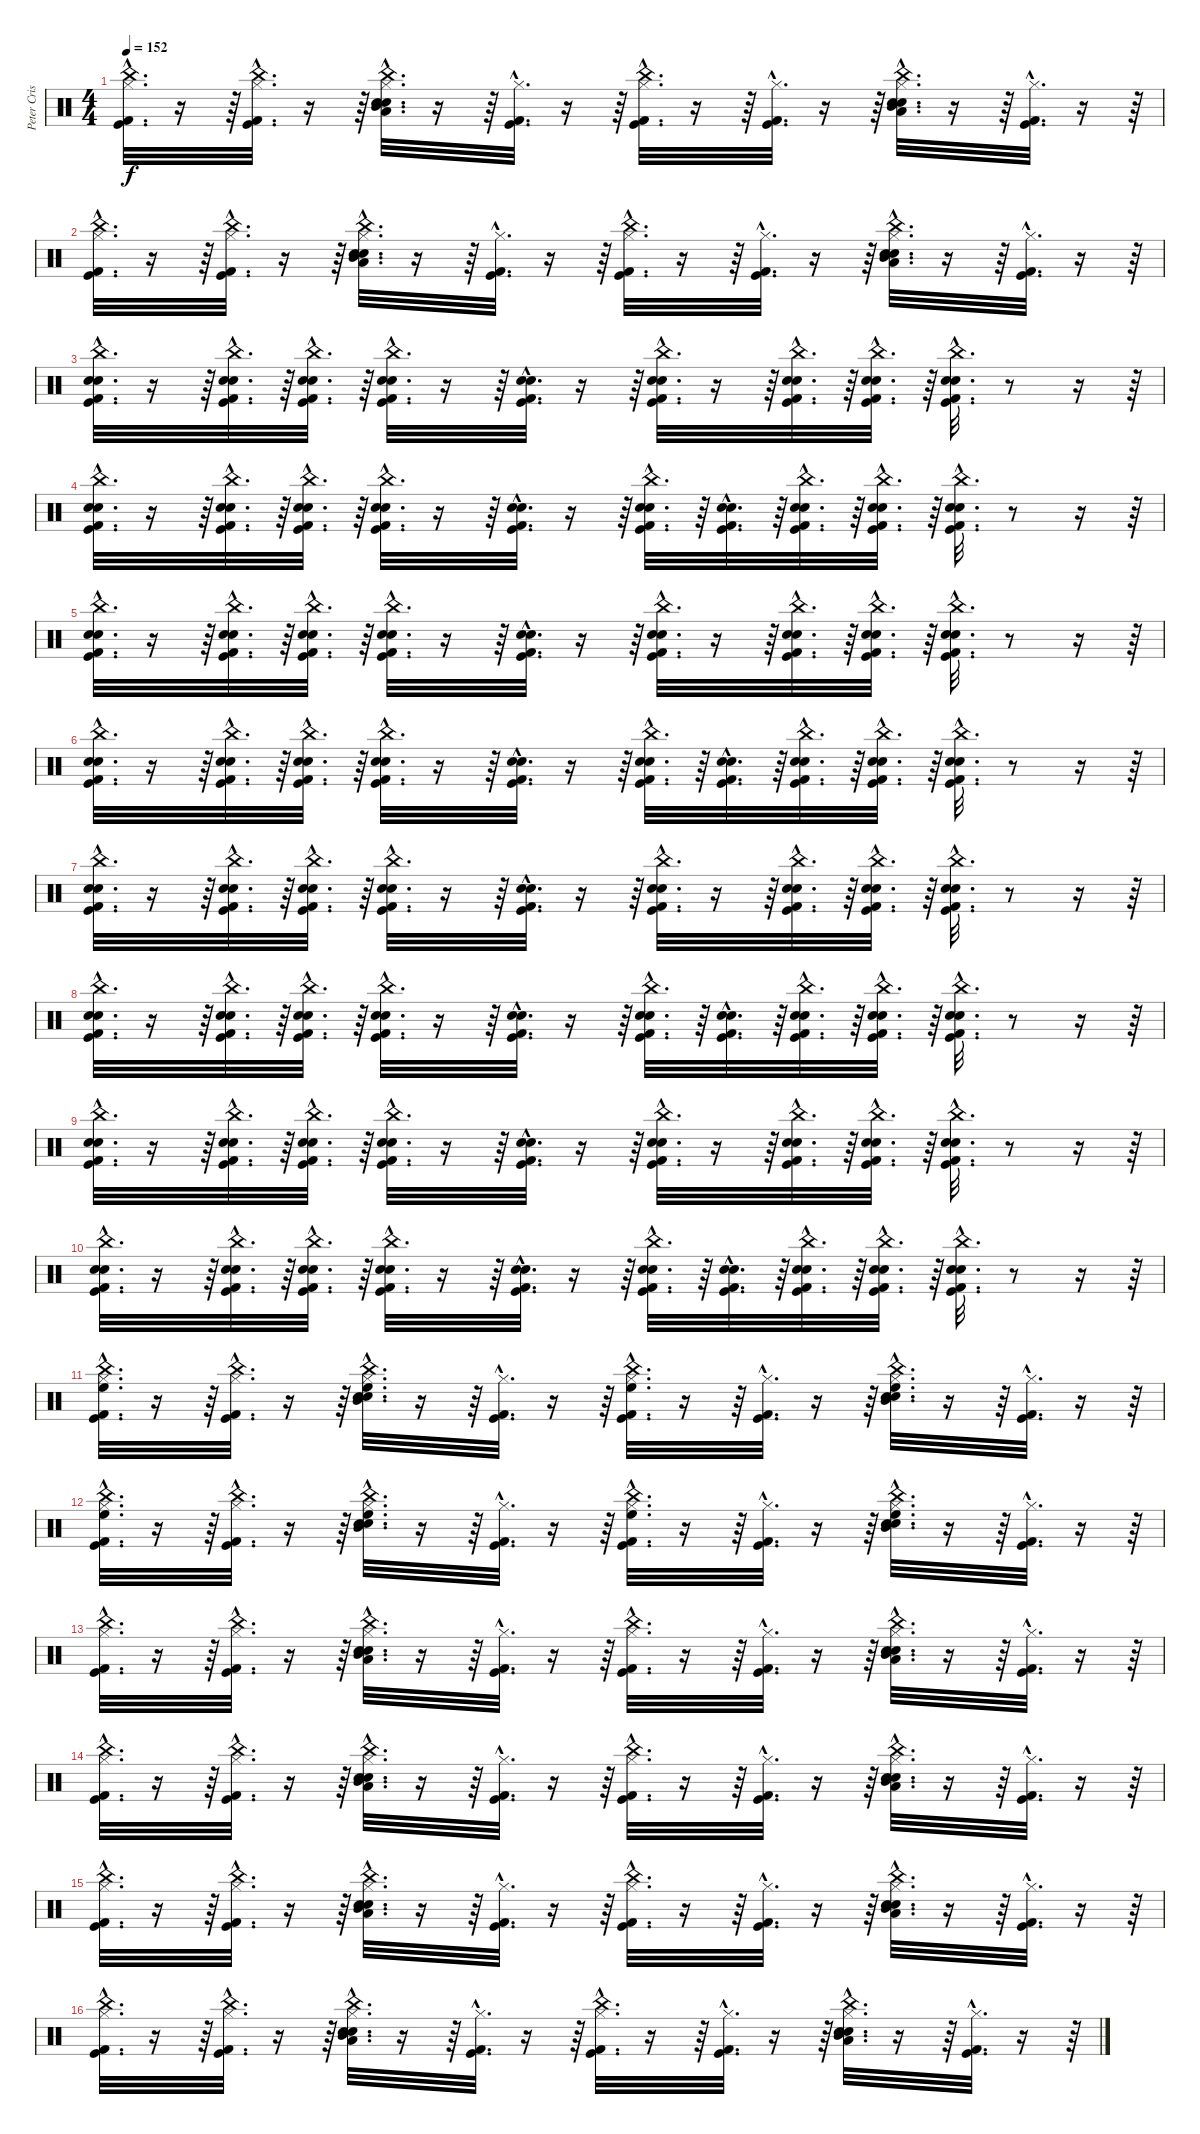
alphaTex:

\track ("Peter Criss" "Peter Cris") {instrument percussion}
\staff {score}
\articulation defaults
\ts (4 4)
\tempo 152
\clef neutral
\ks c
("China (hit)"{hac} "Kick (hit) 2"{hac} "Kick (hit)"{hac} "Hi-Hat (closed)"{hac}).32{d dy f} r.16 r.64 ("Kick (hit)"{hac} "Kick (hit) 2"{hac} "China (hit)"{hac} "Hi-Hat (closed)"{hac}).32{d} r.16 r.64 ("China (hit)"{hac} "Electric Snare (hit)"{hac} "Snare (hit) 2"{hac} "Hi-Hat (closed)"{hac} "Mid Tom (hit)"{hac} "Low Tom (hit)"{hac}).32{d} r.16 r.64 ("Kick (hit) 2"{hac} "Kick (hit)"{hac} "Hi-Hat (closed)"{hac}).32{d} r.16 r.64 ("China (hit)"{hac} "Kick (hit)"{hac} "Kick (hit) 2"{hac} "Hi-Hat (closed)"{hac}).32{d} r.16 r.64 ("Kick (hit) 2"{hac} "Kick (hit)"{hac} "Hi-Hat (closed)"{hac}).32{d} r.16 r.64 ("China (hit)"{hac} "Electric Snare (hit)"{hac} "Snare (hit) 2"{hac} "Hi-Hat (closed)"{hac} "Mid Tom (hit)"{hac} "Low Tom (hit)"{hac}).32{d} r.16 r.64 ("Kick (hit) 2"{hac} "Kick (hit)"{hac} "Hi-Hat (closed)"{hac}).32{d} r.16 r.64 |
("China (hit)"{hac} "Kick (hit) 2"{hac} "Kick (hit)"{hac} "Hi-Hat (closed)"{hac}).32{d} r.16 r.64 ("Kick (hit)"{hac} "Kick (hit) 2"{hac} "China (hit)"{hac} "Hi-Hat (closed)"{hac}).32{d} r.16 r.64 ("China (hit)"{hac} "Electric Snare (hit)"{hac} "Snare (hit) 2"{hac} "Hi-Hat (closed)"{hac} "Mid Tom (hit)"{hac} "Low Tom (hit)"{hac}).32{d} r.16 r.64 ("Kick (hit) 2"{hac} "Kick (hit)"{hac} "Hi-Hat (closed)"{hac}).32{d} r.16 r.64 ("China (hit)"{hac} "Kick (hit)"{hac} "Kick (hit) 2"{hac} "Hi-Hat (closed)"{hac}).32{d} r.16 r.64 ("Kick (hit) 2"{hac} "Kick (hit)"{hac} "Hi-Hat (closed)"{hac}).32{d} r.16 r.64 ("China (hit)"{hac} "Electric Snare (hit)"{hac} "Snare (hit) 2"{hac} "Hi-Hat (closed)"{hac} "Mid Tom (hit)"{hac} "Low Tom (hit)"{hac}).32{d} r.16 r.64 ("Kick (hit) 2"{hac} "Kick (hit)"{hac} "Hi-Hat (closed)"{hac}).32{d} r.16 r.64 |
("Electric Snare (hit)"{hac} "Snare (hit) 2"{hac} "Kick (hit) 2"{hac} "Kick (hit)"{hac} "China (hit)"{hac}).32{d} r.16 r.64 ("Electric Snare (hit)"{hac} "Snare (hit) 2"{hac} "Kick (hit) 2"{hac} "Kick (hit)"{hac} "China (hit)"{hac}).32{d} r.64 ("Electric Snare (hit)"{hac} "Snare (hit) 2"{hac} "Kick (hit) 2"{hac} "Kick (hit)"{hac} "China (hit)"{hac}).32{d} r.64 ("Electric Snare (hit)"{hac} "Snare (hit) 2"{hac} "Kick (hit) 2"{hac} "Kick (hit)"{hac} "China (hit)"{hac}).32{d} r.16 r.64 ("Electric Snare (hit)"{hac} "Snare (hit) 2"{hac} "Kick (hit) 2"{hac} "Kick (hit)"{hac}).32{d} r.16 r.64 ("Electric Snare (hit)"{hac} "Snare (hit) 2"{hac} "Kick (hit) 2"{hac} "Kick (hit)"{hac} "China (hit)"{hac}).32{d} r.16 r.64 ("Electric Snare (hit)"{hac} "Snare (hit) 2"{hac} "Kick (hit) 2"{hac} "Kick (hit)"{hac} "China (hit)"{hac}).32{d} r.64 ("Electric Snare (hit)"{hac} "Snare (hit) 2"{hac} "Kick (hit) 2"{hac} "Kick (hit)"{hac} "China (hit)"{hac}).32{d} r.64 ("Electric Snare (hit)"{hac} "Snare (hit) 2"{hac} "Kick (hit) 2"{hac} "Kick (hit)"{hac} "China (hit)"{hac}).32{d} r.8 r.16 r.64 |
("Electric Snare (hit)"{hac} "Snare (hit) 2"{hac} "Kick (hit) 2"{hac} "Kick (hit)"{hac} "China (hit)"{hac}).32{d} r.16 r.64 ("Electric Snare (hit)"{hac} "Snare (hit) 2"{hac} "Kick (hit) 2"{hac} "Kick (hit)"{hac} "China (hit)"{hac}).32{d} r.64 ("Electric Snare (hit)"{hac} "Snare (hit) 2"{hac} "Kick (hit) 2"{hac} "Kick (hit)"{hac} "China (hit)"{hac}).32{d} r.64 ("Electric Snare (hit)"{hac} "Snare (hit) 2"{hac} "Kick (hit) 2"{hac} "Kick (hit)"{hac} "China (hit)"{hac}).32{d} r.16 r.64 ("Snare (hit) 2"{hac} "Electric Snare (hit)"{hac} "Kick (hit) 2"{hac} "Kick (hit)"{hac}).32{d} r.16 r.64 ("Electric Snare (hit)"{hac} "Snare (hit) 2"{hac} "Kick (hit) 2"{hac} "Kick (hit)"{hac} "China (hit)"{hac}).32{d} r.64 ("Electric Snare (hit)"{hac} "Snare (hit) 2"{hac} "Kick (hit) 2"{hac} "Kick (hit)"{hac}).32{d} r.64 ("Electric Snare (hit)"{hac} "Snare (hit) 2"{hac} "Kick (hit) 2"{hac} "Kick (hit)"{hac} "China (hit)"{hac}).32{d} r.64 ("Electric Snare (hit)"{hac} "Snare (hit) 2"{hac} "Kick (hit) 2"{hac} "Kick (hit)"{hac} "China (hit)"{hac}).32{d} r.64 ("Electric Snare (hit)"{hac} "Snare (hit) 2"{hac} "Kick (hit) 2"{hac} "Kick (hit)"{hac} "China (hit)"{hac}).32{d} r.8 r.16 r.64 |
("Electric Snare (hit)"{hac} "Snare (hit) 2"{hac} "Kick (hit) 2"{hac} "Kick (hit)"{hac} "China (hit)"{hac}).32{d} r.16 r.64 ("Electric Snare (hit)"{hac} "Snare (hit) 2"{hac} "Kick (hit) 2"{hac} "Kick (hit)"{hac} "China (hit)"{hac}).32{d} r.64 ("Electric Snare (hit)"{hac} "Snare (hit) 2"{hac} "Kick (hit) 2"{hac} "Kick (hit)"{hac} "China (hit)"{hac}).32{d} r.64 ("Electric Snare (hit)"{hac} "Snare (hit) 2"{hac} "Kick (hit) 2"{hac} "Kick (hit)"{hac} "China (hit)"{hac}).32{d} r.16 r.64 ("Electric Snare (hit)"{hac} "Snare (hit) 2"{hac} "Kick (hit) 2"{hac} "Kick (hit)"{hac}).32{d} r.16 r.64 ("Electric Snare (hit)"{hac} "Snare (hit) 2"{hac} "Kick (hit) 2"{hac} "Kick (hit)"{hac} "China (hit)"{hac}).32{d} r.16 r.64 ("Electric Snare (hit)"{hac} "Snare (hit) 2"{hac} "Kick (hit) 2"{hac} "Kick (hit)"{hac} "China (hit)"{hac}).32{d} r.64 ("Electric Snare (hit)"{hac} "Snare (hit) 2"{hac} "Kick (hit) 2"{hac} "Kick (hit)"{hac} "China (hit)"{hac}).32{d} r.64 ("Electric Snare (hit)"{hac} "Snare (hit) 2"{hac} "Kick (hit) 2"{hac} "Kick (hit)"{hac} "China (hit)"{hac}).32{d} r.8 r.16 r.64 |
("Electric Snare (hit)"{hac} "Snare (hit) 2"{hac} "Kick (hit) 2"{hac} "Kick (hit)"{hac} "China (hit)"{hac}).32{d} r.16 r.64 ("Electric Snare (hit)"{hac} "Snare (hit) 2"{hac} "Kick (hit) 2"{hac} "Kick (hit)"{hac} "China (hit)"{hac}).32{d} r.64 ("Electric Snare (hit)"{hac} "Snare (hit) 2"{hac} "Kick (hit) 2"{hac} "Kick (hit)"{hac} "China (hit)"{hac}).32{d} r.64 ("Electric Snare (hit)"{hac} "Snare (hit) 2"{hac} "Kick (hit) 2"{hac} "Kick (hit)"{hac} "China (hit)"{hac}).32{d} r.16 r.64 ("Electric Snare (hit)"{hac} "Kick (hit) 2"{hac} "Kick (hit)"{hac} "Snare (hit) 2"{hac}).32{d} r.16 r.64 ("Electric Snare (hit)"{hac} "Snare (hit) 2"{hac} "Kick (hit) 2"{hac} "Kick (hit)"{hac} "China (hit)"{hac}).32{d} r.64 ("Electric Snare (hit)"{hac} "Snare (hit) 2"{hac} "Kick (hit) 2"{hac} "Kick (hit)"{hac}).32{d} r.64 ("Electric Snare (hit)"{hac} "Snare (hit) 2"{hac} "Kick (hit) 2"{hac} "Kick (hit)"{hac} "China (hit)"{hac}).32{d} r.64 ("Electric Snare (hit)"{hac} "Snare (hit) 2"{hac} "Kick (hit) 2"{hac} "Kick (hit)"{hac} "China (hit)"{hac}).32{d} r.64 ("Electric Snare (hit)"{hac} "Snare (hit) 2"{hac} "Kick (hit) 2"{hac} "Kick (hit)"{hac} "China (hit)"{hac}).32{d} r.8 r.16 r.64 |
("Electric Snare (hit)"{hac} "Snare (hit) 2"{hac} "Kick (hit) 2"{hac} "Kick (hit)"{hac} "China (hit)"{hac}).32{d} r.16 r.64 ("Electric Snare (hit)"{hac} "Snare (hit) 2"{hac} "Kick (hit) 2"{hac} "Kick (hit)"{hac} "China (hit)"{hac}).32{d} r.64 ("Electric Snare (hit)"{hac} "Snare (hit) 2"{hac} "Kick (hit) 2"{hac} "Kick (hit)"{hac} "China (hit)"{hac}).32{d} r.64 ("Electric Snare (hit)"{hac} "Snare (hit) 2"{hac} "Kick (hit) 2"{hac} "Kick (hit)"{hac} "China (hit)"{hac}).32{d} r.16 r.64 ("Electric Snare (hit)"{hac} "Snare (hit) 2"{hac} "Kick (hit) 2"{hac} "Kick (hit)"{hac}).32{d} r.16 r.64 ("Electric Snare (hit)"{hac} "Snare (hit) 2"{hac} "Kick (hit) 2"{hac} "Kick (hit)"{hac} "China (hit)"{hac}).32{d} r.16 r.64 ("Electric Snare (hit)"{hac} "Snare (hit) 2"{hac} "Kick (hit) 2"{hac} "Kick (hit)"{hac} "China (hit)"{hac}).32{d} r.64 ("Electric Snare (hit)"{hac} "Snare (hit) 2"{hac} "Kick (hit) 2"{hac} "Kick (hit)"{hac} "China (hit)"{hac}).32{d} r.64 ("Electric Snare (hit)"{hac} "Snare (hit) 2"{hac} "Kick (hit) 2"{hac} "Kick (hit)"{hac} "China (hit)"{hac}).32{d} r.8 r.16 r.64 |
("Electric Snare (hit)"{hac} "Snare (hit) 2"{hac} "Kick (hit) 2"{hac} "Kick (hit)"{hac} "China (hit)"{hac}).32{d} r.16 r.64 ("Electric Snare (hit)"{hac} "Snare (hit) 2"{hac} "Kick (hit) 2"{hac} "Kick (hit)"{hac} "China (hit)"{hac}).32{d} r.64 ("Electric Snare (hit)"{hac} "Snare (hit) 2"{hac} "Kick (hit) 2"{hac} "Kick (hit)"{hac} "China (hit)"{hac}).32{d} r.64 ("Electric Snare (hit)"{hac} "Snare (hit) 2"{hac} "Kick (hit) 2"{hac} "Kick (hit)"{hac} "China (hit)"{hac}).32{d} r.16 r.64 ("Snare (hit) 2"{hac} "Electric Snare (hit)"{hac} "Kick (hit) 2"{hac} "Kick (hit)"{hac}).32{d} r.16 r.64 ("Electric Snare (hit)"{hac} "Snare (hit) 2"{hac} "Kick (hit) 2"{hac} "Kick (hit)"{hac} "China (hit)"{hac}).32{d} r.64 ("Electric Snare (hit)"{hac} "Snare (hit) 2"{hac} "Kick (hit) 2"{hac} "Kick (hit)"{hac}).32{d} r.64 ("Electric Snare (hit)"{hac} "Snare (hit) 2"{hac} "Kick (hit) 2"{hac} "Kick (hit)"{hac} "China (hit)"{hac}).32{d} r.64 ("Electric Snare (hit)"{hac} "Snare (hit) 2"{hac} "Kick (hit) 2"{hac} "Kick (hit)"{hac} "China (hit)"{hac}).32{d} r.64 ("Electric Snare (hit)"{hac} "Snare (hit) 2"{hac} "Kick (hit) 2"{hac} "Kick (hit)"{hac} "China (hit)"{hac}).32{d} r.8 r.16 r.64 |
("Electric Snare (hit)"{hac} "Snare (hit) 2"{hac} "Kick (hit) 2"{hac} "Kick (hit)"{hac} "China (hit)"{hac}).32{d} r.16 r.64 ("Electric Snare (hit)"{hac} "Snare (hit) 2"{hac} "Kick (hit) 2"{hac} "Kick (hit)"{hac} "China (hit)"{hac}).32{d} r.64 ("Electric Snare (hit)"{hac} "Snare (hit) 2"{hac} "Kick (hit) 2"{hac} "Kick (hit)"{hac} "China (hit)"{hac}).32{d} r.64 ("Electric Snare (hit)"{hac} "Snare (hit) 2"{hac} "Kick (hit) 2"{hac} "Kick (hit)"{hac} "China (hit)"{hac}).32{d} r.16 r.64 ("Electric Snare (hit)"{hac} "Snare (hit) 2"{hac} "Kick (hit) 2"{hac} "Kick (hit)"{hac}).32{d} r.16 r.64 ("Electric Snare (hit)"{hac} "Snare (hit) 2"{hac} "Kick (hit) 2"{hac} "Kick (hit)"{hac} "China (hit)"{hac}).32{d} r.16 r.64 ("Electric Snare (hit)"{hac} "Snare (hit) 2"{hac} "Kick (hit) 2"{hac} "Kick (hit)"{hac} "China (hit)"{hac}).32{d} r.64 ("Electric Snare (hit)"{hac} "Snare (hit) 2"{hac} "Kick (hit) 2"{hac} "Kick (hit)"{hac} "China (hit)"{hac}).32{d} r.64 ("Electric Snare (hit)"{hac} "Snare (hit) 2"{hac} "Kick (hit) 2"{hac} "Kick (hit)"{hac} "China (hit)"{hac}).32{d} r.8 r.16 r.64 |
("Electric Snare (hit)"{hac} "Snare (hit) 2"{hac} "Kick (hit) 2"{hac} "Kick (hit)"{hac} "China (hit)"{hac}).32{d} r.16 r.64 ("Electric Snare (hit)"{hac} "Snare (hit) 2"{hac} "Kick (hit) 2"{hac} "Kick (hit)"{hac} "China (hit)"{hac}).32{d} r.64 ("Electric Snare (hit)"{hac} "Snare (hit) 2"{hac} "Kick (hit) 2"{hac} "Kick (hit)"{hac} "China (hit)"{hac}).32{d} r.64 ("Electric Snare (hit)"{hac} "Snare (hit) 2"{hac} "Kick (hit) 2"{hac} "Kick (hit)"{hac} "China (hit)"{hac}).32{d} r.16 r.64 ("Electric Snare (hit)"{hac} "Kick (hit) 2"{hac} "Kick (hit)"{hac} "Snare (hit) 2"{hac}).32{d} r.16 r.64 ("Electric Snare (hit)"{hac} "Snare (hit) 2"{hac} "Kick (hit) 2"{hac} "Kick (hit)"{hac} "China (hit)"{hac}).32{d} r.64 ("Electric Snare (hit)"{hac} "Snare (hit) 2"{hac} "Kick (hit) 2"{hac} "Kick (hit)"{hac}).32{d} r.64 ("Electric Snare (hit)"{hac} "Snare (hit) 2"{hac} "Kick (hit) 2"{hac} "Kick (hit)"{hac} "China (hit)"{hac}).32{d} r.64 ("Electric Snare (hit)"{hac} "Snare (hit) 2"{hac} "Kick (hit) 2"{hac} "Kick (hit)"{hac} "China (hit)"{hac}).32{d} r.64 ("Electric Snare (hit)"{hac} "Snare (hit) 2"{hac} "Kick (hit) 2"{hac} "Kick (hit)"{hac} "China (hit)"{hac}).32{d} r.8 r.16 r.64 |
("China (hit)"{hac} "Kick (hit) 2"{hac} "Kick (hit)"{hac} "Hi-Hat (closed)"{hac} "High Floor Tom (hit)"{hac}).32{d} r.16 r.64 ("Kick (hit)"{hac} "Kick (hit) 2"{hac} "China (hit)"{hac} "Hi-Hat (closed)"{hac}).32{d} r.16 r.64 ("China (hit)"{hac} "Electric Snare (hit)"{hac} "Snare (hit) 2"{hac} "Hi-Hat (closed)"{hac} "Mid Tom (hit)"{hac} "High Floor Tom (hit)"{hac}).32{d} r.16 r.64 ("Kick (hit) 2"{hac} "Kick (hit)"{hac} "Hi-Hat (closed)"{hac}).32{d} r.16 r.64 ("China (hit)"{hac} "Kick (hit)"{hac} "Kick (hit) 2"{hac} "Hi-Hat (closed)"{hac} "High Floor Tom (hit)"{hac}).32{d} r.16 r.64 ("Kick (hit) 2"{hac} "Kick (hit)"{hac} "Hi-Hat (closed)"{hac}).32{d} r.16 r.64 ("China (hit)"{hac} "Electric Snare (hit)"{hac} "Snare (hit) 2"{hac} "Hi-Hat (closed)"{hac} "Mid Tom (hit)"{hac} "High Floor Tom (hit)"{hac}).32{d} r.16 r.64 ("Kick (hit) 2"{hac} "Kick (hit)"{hac} "Hi-Hat (closed)"{hac}).32{d} r.16 r.64 |
("China (hit)"{hac} "Kick (hit) 2"{hac} "Kick (hit)"{hac} "Hi-Hat (closed)"{hac} "High Floor Tom (hit)"{hac}).32{d} r.16 r.64 ("Kick (hit)"{hac} "Kick (hit) 2"{hac} "China (hit)"{hac} "Hi-Hat (closed)"{hac}).32{d} r.16 r.64 ("China (hit)"{hac} "Electric Snare (hit)"{hac} "Snare (hit) 2"{hac} "Hi-Hat (closed)"{hac} "Mid Tom (hit)"{hac} "High Floor Tom (hit)"{hac}).32{d} r.16 r.64 ("Kick (hit) 2"{hac} "Kick (hit)"{hac} "Hi-Hat (closed)"{hac}).32{d} r.16 r.64 ("China (hit)"{hac} "Kick (hit)"{hac} "Kick (hit) 2"{hac} "Hi-Hat (closed)"{hac} "High Floor Tom (hit)"{hac}).32{d} r.16 r.64 ("Kick (hit) 2"{hac} "Kick (hit)"{hac} "Hi-Hat (closed)"{hac}).32{d} r.16 r.64 ("China (hit)"{hac} "Electric Snare (hit)"{hac} "Snare (hit) 2"{hac} "Hi-Hat (closed)"{hac} "Mid Tom (hit)"{hac} "High Floor Tom (hit)"{hac}).32{d} r.16 r.64 ("Kick (hit) 2"{hac} "Kick (hit)"{hac} "Hi-Hat (closed)"{hac}).32{d} r.16 r.64 |
("China (hit)"{hac} "Kick (hit) 2"{hac} "Kick (hit)"{hac} "Hi-Hat (closed)"{hac}).32{d} r.16 r.64 ("Kick (hit)"{hac} "Kick (hit) 2"{hac} "China (hit)"{hac} "Hi-Hat (closed)"{hac}).32{d} r.16 r.64 ("China (hit)"{hac} "Electric Snare (hit)"{hac} "Snare (hit) 2"{hac} "Hi-Hat (closed)"{hac} "Mid Tom (hit)"{hac} "Low Tom (hit)"{hac}).32{d} r.16 r.64 ("Kick (hit) 2"{hac} "Kick (hit)"{hac} "Hi-Hat (closed)"{hac}).32{d} r.16 r.64 ("China (hit)"{hac} "Kick (hit)"{hac} "Kick (hit) 2"{hac} "Hi-Hat (closed)"{hac}).32{d} r.16 r.64 ("Kick (hit) 2"{hac} "Kick (hit)"{hac} "Hi-Hat (closed)"{hac}).32{d} r.16 r.64 ("China (hit)"{hac} "Electric Snare (hit)"{hac} "Snare (hit) 2"{hac} "Hi-Hat (closed)"{hac} "Mid Tom (hit)"{hac} "Low Tom (hit)"{hac}).32{d} r.16 r.64 ("Kick (hit) 2"{hac} "Kick (hit)"{hac} "Hi-Hat (closed)"{hac}).32{d} r.16 r.64 |
("China (hit)"{hac} "Kick (hit) 2"{hac} "Kick (hit)"{hac} "Hi-Hat (closed)"{hac}).32{d} r.16 r.64 ("Kick (hit)"{hac} "Kick (hit) 2"{hac} "China (hit)"{hac} "Hi-Hat (closed)"{hac}).32{d} r.16 r.64 ("China (hit)"{hac} "Electric Snare (hit)"{hac} "Snare (hit) 2"{hac} "Hi-Hat (closed)"{hac} "Mid Tom (hit)"{hac} "Low Tom (hit)"{hac}).32{d} r.16 r.64 ("Kick (hit) 2"{hac} "Kick (hit)"{hac} "Hi-Hat (closed)"{hac}).32{d} r.16 r.64 ("China (hit)"{hac} "Kick (hit)"{hac} "Kick (hit) 2"{hac} "Hi-Hat (closed)"{hac}).32{d} r.16 r.64 ("Kick (hit) 2"{hac} "Kick (hit)"{hac} "Hi-Hat (closed)"{hac}).32{d} r.16 r.64 ("China (hit)"{hac} "Electric Snare (hit)"{hac} "Snare (hit) 2"{hac} "Hi-Hat (closed)"{hac} "Mid Tom (hit)"{hac} "Low Tom (hit)"{hac}).32{d} r.16 r.64 ("Kick (hit) 2"{hac} "Kick (hit)"{hac} "Hi-Hat (closed)"{hac}).32{d} r.16 r.64 |
("China (hit)"{hac} "Kick (hit) 2"{hac} "Kick (hit)"{hac} "Hi-Hat (closed)"{hac}).32{d} r.16 r.64 ("Kick (hit)"{hac} "Kick (hit) 2"{hac} "China (hit)"{hac} "Hi-Hat (closed)"{hac}).32{d} r.16 r.64 ("China (hit)"{hac} "Electric Snare (hit)"{hac} "Snare (hit) 2"{hac} "Hi-Hat (closed)"{hac} "Mid Tom (hit)"{hac} "Low Tom (hit)"{hac}).32{d} r.16 r.64 ("Kick (hit) 2"{hac} "Kick (hit)"{hac} "Hi-Hat (closed)"{hac}).32{d} r.16 r.64 ("China (hit)"{hac} "Kick (hit)"{hac} "Kick (hit) 2"{hac} "Hi-Hat (closed)"{hac}).32{d} r.16 r.64 ("Kick (hit) 2"{hac} "Kick (hit)"{hac} "Hi-Hat (closed)"{hac}).32{d} r.16 r.64 ("China (hit)"{hac} "Electric Snare (hit)"{hac} "Snare (hit) 2"{hac} "Hi-Hat (closed)"{hac} "Mid Tom (hit)"{hac} "Low Tom (hit)"{hac}).32{d} r.16 r.64 ("Kick (hit) 2"{hac} "Kick (hit)"{hac} "Hi-Hat (closed)"{hac}).32{d} r.16 r.64 |
("China (hit)"{hac} "Kick (hit) 2"{hac} "Kick (hit)"{hac} "Hi-Hat (closed)"{hac}).32{d} r.16 r.64 ("Kick (hit)"{hac} "Kick (hit) 2"{hac} "China (hit)"{hac} "Hi-Hat (closed)"{hac}).32{d} r.16 r.64 ("China (hit)"{hac} "Electric Snare (hit)"{hac} "Snare (hit) 2"{hac} "Hi-Hat (closed)"{hac} "Mid Tom (hit)"{hac} "Low Tom (hit)"{hac}).32{d} r.16 r.64 ("Kick (hit) 2"{hac} "Kick (hit)"{hac} "Hi-Hat (closed)"{hac}).32{d} r.16 r.64 ("China (hit)"{hac} "Kick (hit)"{hac} "Kick (hit) 2"{hac} "Hi-Hat (closed)"{hac}).32{d} r.16 r.64 ("Kick (hit) 2"{hac} "Kick (hit)"{hac} "Hi-Hat (closed)"{hac}).32{d} r.16 r.64 ("China (hit)"{hac} "Electric Snare (hit)"{hac} "Snare (hit) 2"{hac} "Hi-Hat (closed)"{hac} "Mid Tom (hit)"{hac} "Low Tom (hit)"{hac}).32{d} r.16 r.64 ("Kick (hit) 2"{hac} "Kick (hit)"{hac} "Hi-Hat (closed)"{hac}).32{d} r.16 r.64
